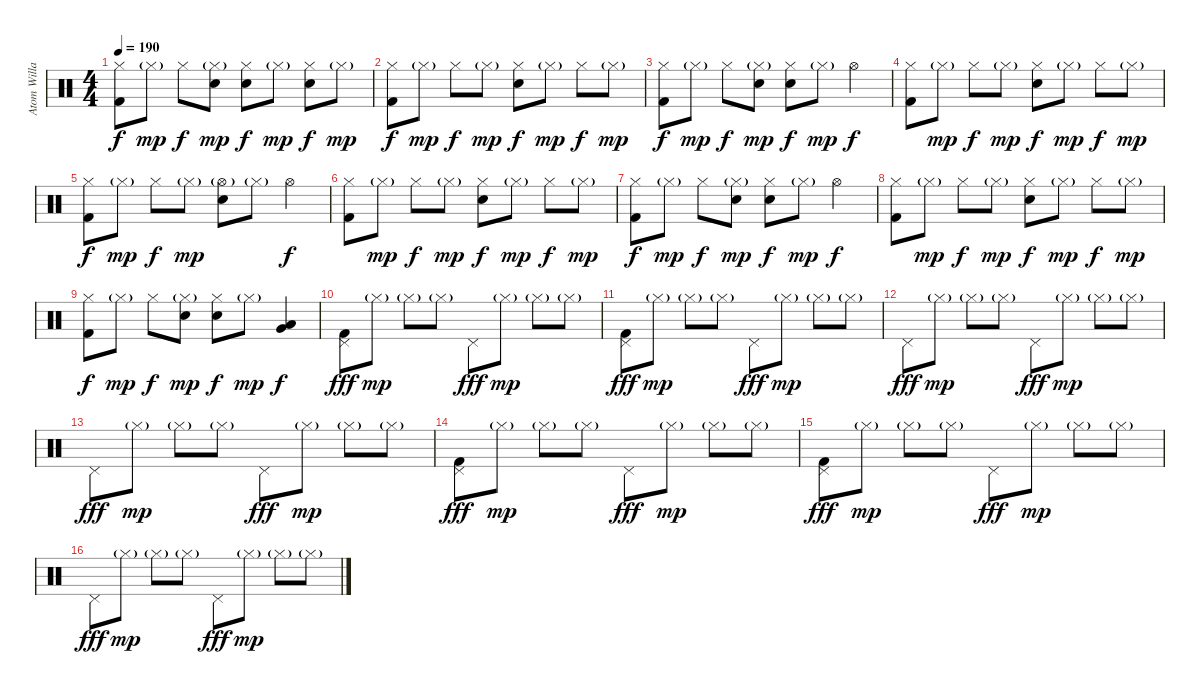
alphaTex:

\track ("Atom Willard" "Atom Willa") {instrument percussion}
\staff {score}
\articulation defaults
\ts (4 4)
\tempo 190
\clef neutral
\ks c
("Hi-Hat (closed)" "Kick (hit) 2").8{dy f} "Hi-Hat (closed)"{g}.8{dy mp} "Hi-Hat (closed)".8{dy f} ("Hi-Hat (closed)"{g} "Electric Snare (hit)").8{dy mp} ("Hi-Hat (closed)" "Electric Snare (hit)").8{dy f} "Hi-Hat (closed)"{g}.8{dy mp} ("Hi-Hat (closed)" "Electric Snare (hit)").8{dy f} "Hi-Hat (closed)"{g}.8{dy mp} |
("Hi-Hat (closed)" "Kick (hit) 2").8{dy f} "Hi-Hat (closed)"{g}.8{dy mp} "Hi-Hat (closed)".8{dy f} "Hi-Hat (closed)"{g}.8{dy mp} ("Hi-Hat (closed)" "Electric Snare (hit)").8{dy f} "Hi-Hat (closed)"{g}.8{dy mp} "Hi-Hat (closed)".8{dy f} "Hi-Hat (closed)"{g}.8{dy mp} |
("Hi-Hat (closed)" "Kick (hit) 2").8{dy f} "Hi-Hat (closed)"{g}.8{dy mp} "Hi-Hat (closed)".8{dy f} ("Hi-Hat (closed)"{g} "Electric Snare (hit)").8{dy mp} ("Hi-Hat (closed)" "Electric Snare (hit)").8{dy f} "Hi-Hat (closed)"{g}.8{dy mp} "Hi-Hat (open)".4{dy f} |
("Hi-Hat (closed)" "Kick (hit) 2").8 "Hi-Hat (closed)"{g}.8{dy mp} "Hi-Hat (closed)".8{dy f} "Hi-Hat (closed)"{g}.8{dy mp} ("Hi-Hat (closed)" "Electric Snare (hit)").8{dy f} "Hi-Hat (closed)"{g}.8{dy mp} "Hi-Hat (closed)".8{dy f} "Hi-Hat (closed)"{g}.8{dy mp} |
("Hi-Hat (closed)" "Kick (hit) 2").8{dy f} "Hi-Hat (closed)"{g}.8{dy mp} "Hi-Hat (closed)".8{dy f} "Hi-Hat (closed)"{g}.8{dy mp} ("Hi-Hat (open)"{g} "Electric Snare (hit)").8 "Hi-Hat (closed)"{g}.8 "Hi-Hat (open)".4{dy f} |
("Hi-Hat (closed)" "Kick (hit) 2").8 "Hi-Hat (closed)"{g}.8{dy mp} "Hi-Hat (closed)".8{dy f} "Hi-Hat (closed)"{g}.8{dy mp} ("Hi-Hat (closed)" "Electric Snare (hit)").8{dy f} "Hi-Hat (closed)"{g}.8{dy mp} "Hi-Hat (closed)".8{dy f} "Hi-Hat (closed)"{g}.8{dy mp} |
("Hi-Hat (closed)" "Kick (hit) 2").8{dy f} "Hi-Hat (closed)"{g}.8{dy mp} "Hi-Hat (closed)".8{dy f} ("Hi-Hat (closed)"{g} "Electric Snare (hit)").8{dy mp} ("Hi-Hat (closed)" "Electric Snare (hit)").8{dy f} "Hi-Hat (closed)"{g}.8{dy mp} "Hi-Hat (open)".4{dy f} |
("Hi-Hat (closed)" "Kick (hit) 2").8 "Hi-Hat (closed)"{g}.8{dy mp} "Hi-Hat (closed)".8{dy f} "Hi-Hat (closed)"{g}.8{dy mp} ("Hi-Hat (closed)" "Electric Snare (hit)").8{dy f} "Hi-Hat (closed)"{g}.8{dy mp} "Hi-Hat (closed)".8{dy f} "Hi-Hat (closed)"{g}.8{dy mp} |
("Hi-Hat (closed)" "Kick (hit) 2").8{dy f} "Hi-Hat (closed)"{g}.8{dy mp} "Hi-Hat (closed)".8{dy f} ("Hi-Hat (closed)"{g} "Electric Snare (hit)").8{dy mp} ("Hi-Hat (closed)" "Electric Snare (hit)").8{dy f} "Hi-Hat (closed)"{g}.8{dy mp} ("Very Low Tom (hit)" "Low Floor Tom (hit)").4{dy f} |
("Pedal Hi-Hat (hit)" "Kick (hit) 2").8{dy fff} "Hi-Hat (closed)"{g}.8{dy mp} "Hi-Hat (closed)"{g}.8 "Hi-Hat (closed)"{g}.8 "Pedal Hi-Hat (hit)".8{dy fff} "Hi-Hat (closed)"{g}.8{dy mp} "Hi-Hat (closed)"{g}.8 "Hi-Hat (closed)"{g}.8 |
("Pedal Hi-Hat (hit)" "Kick (hit) 2").8{dy fff} "Hi-Hat (closed)"{g}.8{dy mp} "Hi-Hat (closed)"{g}.8 "Hi-Hat (closed)"{g}.8 "Pedal Hi-Hat (hit)".8{dy fff} "Hi-Hat (closed)"{g}.8{dy mp} "Hi-Hat (closed)"{g}.8 "Hi-Hat (closed)"{g}.8 |
"Pedal Hi-Hat (hit)".8{dy fff} "Hi-Hat (closed)"{g}.8{dy mp} "Hi-Hat (closed)"{g}.8 "Hi-Hat (closed)"{g}.8 "Pedal Hi-Hat (hit)".8{dy fff} "Hi-Hat (closed)"{g}.8{dy mp} "Hi-Hat (closed)"{g}.8 "Hi-Hat (closed)"{g}.8 |
"Pedal Hi-Hat (hit)".8{dy fff} "Hi-Hat (closed)"{g}.8{dy mp} "Hi-Hat (closed)"{g}.8 "Hi-Hat (closed)"{g}.8 "Pedal Hi-Hat (hit)".8{dy fff} "Hi-Hat (closed)"{g}.8{dy mp} "Hi-Hat (closed)"{g}.8 "Hi-Hat (closed)"{g}.8 |
("Pedal Hi-Hat (hit)" "Kick (hit) 2").8{dy fff} "Hi-Hat (closed)"{g}.8{dy mp} "Hi-Hat (closed)"{g}.8 "Hi-Hat (closed)"{g}.8 "Pedal Hi-Hat (hit)".8{dy fff} "Hi-Hat (closed)"{g}.8{dy mp} "Hi-Hat (closed)"{g}.8 "Hi-Hat (closed)"{g}.8 |
("Pedal Hi-Hat (hit)" "Kick (hit) 2").8{dy fff} "Hi-Hat (closed)"{g}.8{dy mp} "Hi-Hat (closed)"{g}.8 "Hi-Hat (closed)"{g}.8 "Pedal Hi-Hat (hit)".8{dy fff} "Hi-Hat (closed)"{g}.8{dy mp} "Hi-Hat (closed)"{g}.8 "Hi-Hat (closed)"{g}.8 |
"Pedal Hi-Hat (hit)".8{dy fff} "Hi-Hat (closed)"{g}.8{dy mp} "Hi-Hat (closed)"{g}.8 "Hi-Hat (closed)"{g}.8 "Pedal Hi-Hat (hit)".8{dy fff} "Hi-Hat (closed)"{g}.8{dy mp} "Hi-Hat (closed)"{g}.8 "Hi-Hat (closed)"{g}.8
